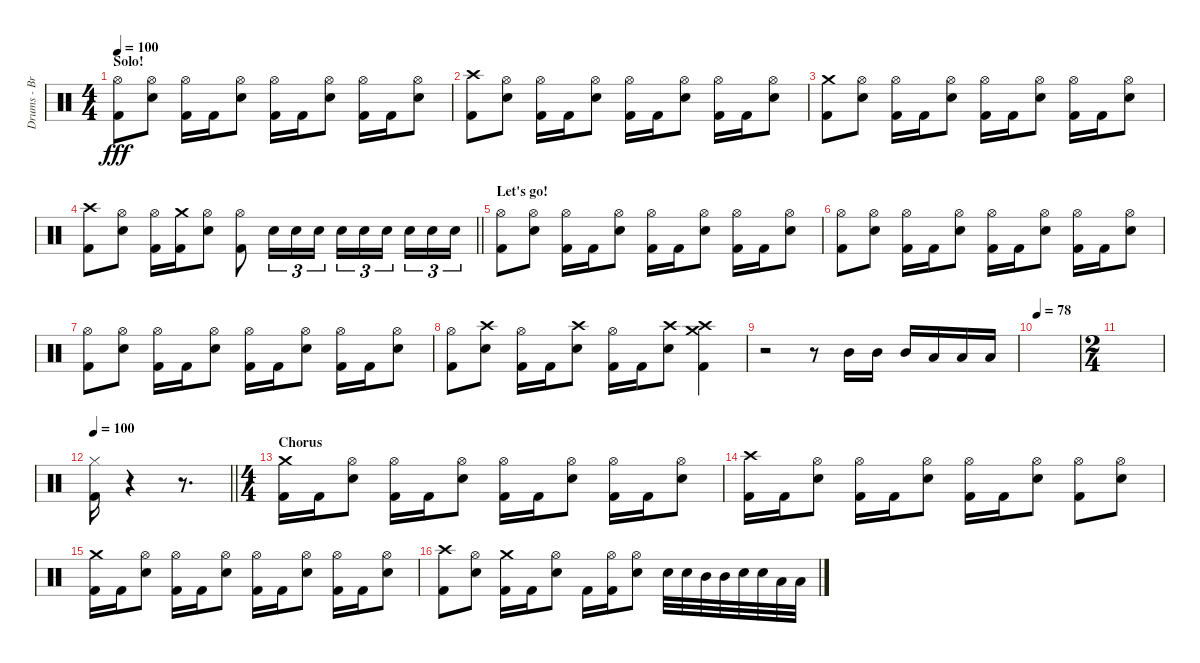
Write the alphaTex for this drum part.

\track ("Drums - Brandon" "Drums - Br") {instrument percussion}
\staff {score}
\articulation defaults
\ts (4 4)
\section ("" "Solo!")
\tempo 100
\clef neutral
\ks c
("Hi-Hat (open)" "Kick (hit) 2").8{dy fff} ("Hi-Hat (open)" "Snare (hit) 2").8 ("Hi-Hat (open)" "Kick (hit) 2").16 "Kick (hit) 2".16 ("Hi-Hat (open)" "Snare (hit) 2").8 ("Hi-Hat (open)" "Kick (hit) 2").16 "Kick (hit) 2".16 ("Hi-Hat (open)" "Snare (hit) 2").8 ("Hi-Hat (open)" "Kick (hit) 2").16 "Kick (hit) 2".16 ("Hi-Hat (open)" "Snare (hit) 2").8 |
("Crash high (hit)" "Kick (hit) 2").8 ("Hi-Hat (open)" "Snare (hit) 2").8 ("Hi-Hat (open)" "Kick (hit) 2").16 "Kick (hit) 2".16 ("Hi-Hat (open)" "Snare (hit) 2").8 ("Hi-Hat (open)" "Kick (hit) 2").16 "Kick (hit) 2".16 ("Hi-Hat (open)" "Snare (hit) 2").8 ("Hi-Hat (open)" "Kick (hit) 2").16 "Kick (hit) 2".16 ("Hi-Hat (open)" "Snare (hit) 2").8 |
("Crash medium (hit)" "Kick (hit) 2").8 ("Hi-Hat (open)" "Snare (hit) 2").8 ("Hi-Hat (open)" "Kick (hit) 2").16 "Kick (hit) 2".16 ("Hi-Hat (open)" "Snare (hit) 2").8 ("Hi-Hat (open)" "Kick (hit) 2").16 "Kick (hit) 2".16 ("Hi-Hat (open)" "Snare (hit) 2").8 ("Hi-Hat (open)" "Kick (hit) 2").16 "Kick (hit) 2".16 ("Hi-Hat (open)" "Snare (hit) 2").8 |
\barLineRight lightlight
("Crash high (hit)" "Kick (hit) 2").8 ("Hi-Hat (open)" "Snare (hit) 2").8 ("Hi-Hat (open)" "Kick (hit) 2").16 ("Crash medium (hit)" "Kick (hit) 2").16 ("Hi-Hat (open)" "Snare (hit) 2").8 ("Hi-Hat (open)" "Kick (hit) 2").8 "Snare (hit) 2".16{tu (3 2)} "Snare (hit) 2".16{tu (3 2)} "Snare (hit) 2".16{tu (3 2)} "Snare (hit) 2".16{tu (3 2)} "Snare (hit) 2".16{tu (3 2)} "Snare (hit) 2".16{tu (3 2) beam splitsecondary} "Snare (hit) 2".16{tu (3 2)} "Snare (hit) 2".16{tu (3 2)} "Snare (hit) 2".16{tu (3 2)} |
\section ("" "Let's go!")
("Hi-Hat (open)" "Kick (hit) 2").8 ("Hi-Hat (open)" "Snare (hit) 2").8 ("Hi-Hat (open)" "Kick (hit) 2").16 "Kick (hit) 2".16 ("Hi-Hat (open)" "Snare (hit) 2").8 ("Hi-Hat (open)" "Kick (hit) 2").16 "Kick (hit) 2".16 ("Hi-Hat (open)" "Snare (hit) 2").8 ("Hi-Hat (open)" "Kick (hit) 2").16 "Kick (hit) 2".16 ("Hi-Hat (open)" "Snare (hit) 2").8 |
("Hi-Hat (open)" "Kick (hit) 2").8 ("Hi-Hat (open)" "Snare (hit) 2").8 ("Hi-Hat (open)" "Kick (hit) 2").16 "Kick (hit) 2".16 ("Hi-Hat (open)" "Snare (hit) 2").8 ("Hi-Hat (open)" "Kick (hit) 2").16 "Kick (hit) 2".16 ("Hi-Hat (open)" "Snare (hit) 2").8 ("Hi-Hat (open)" "Kick (hit) 2").16 "Kick (hit) 2".16 ("Hi-Hat (open)" "Snare (hit) 2").8 |
("Hi-Hat (open)" "Kick (hit) 2").8 ("Hi-Hat (open)" "Snare (hit) 2").8 ("Hi-Hat (open)" "Kick (hit) 2").16 "Kick (hit) 2".16 ("Hi-Hat (open)" "Snare (hit) 2").8 ("Hi-Hat (open)" "Kick (hit) 2").16 "Kick (hit) 2".16 ("Hi-Hat (open)" "Snare (hit) 2").8 ("Hi-Hat (open)" "Kick (hit) 2").16 "Kick (hit) 2".16 ("Hi-Hat (open)" "Snare (hit) 2").8 |
("Hi-Hat (open)" "Kick (hit) 2").8 ("Crash high (hit)" "Snare (hit) 2").8 ("Hi-Hat (open)" "Kick (hit) 2").16 "Kick (hit) 2".16 ("Crash high (hit)" "Snare (hit) 2").8 ("Hi-Hat (open)" "Kick (hit) 2").16 "Kick (hit) 2".16 ("Crash high (hit)" "Snare (hit) 2").8 ("Crash high (hit)" "Crash medium (hit)" "Kick (hit) 2").4 |
r.2 r.8 "Mid Tom (hit)".16 "Mid Tom (hit)".16 "Mid Tom (hit)".16 "Low Tom (hit)".16 "Low Tom (hit)".16 "Low Tom (hit)".16 |
\tempo 78
|
\ts (2 4)
|
\tempo 100
\barLineRight lightlight
("Hi-Hat (closed)" "Kick (hit) 2").16 r.4 r.8{d} |
\ts (4 4)
\section ("" "Chorus")
("Crash medium (hit)" "Kick (hit) 2").16 "Kick (hit) 2".16 ("Hi-Hat (open)" "Snare (hit) 2").8 ("Hi-Hat (open)" "Kick (hit) 2").16 "Kick (hit) 2".16 ("Hi-Hat (open)" "Snare (hit) 2").8 ("Hi-Hat (open)" "Kick (hit) 2").16 "Kick (hit) 2".16 ("Hi-Hat (open)" "Snare (hit) 2").8 ("Hi-Hat (open)" "Kick (hit) 2").16 "Kick (hit) 2".16 ("Hi-Hat (open)" "Snare (hit) 2").8 |
("Crash high (hit)" "Kick (hit) 2").16 "Kick (hit) 2".16 ("Hi-Hat (open)" "Snare (hit) 2").8 ("Hi-Hat (open)" "Kick (hit) 2").16 "Kick (hit) 2".16 ("Hi-Hat (open)" "Snare (hit) 2").8 ("Hi-Hat (open)" "Kick (hit) 2").16 "Kick (hit) 2".16 ("Hi-Hat (open)" "Snare (hit) 2").8 ("Hi-Hat (open)" "Kick (hit) 2").8 ("Hi-Hat (open)" "Snare (hit) 2").8 |
("Crash medium (hit)" "Kick (hit) 2").16 "Kick (hit) 2".16 ("Hi-Hat (open)" "Snare (hit) 2").8 ("Hi-Hat (open)" "Kick (hit) 2").16 "Kick (hit) 2".16 ("Hi-Hat (open)" "Snare (hit) 2").8 ("Hi-Hat (open)" "Kick (hit) 2").16 "Kick (hit) 2".16 ("Hi-Hat (open)" "Snare (hit) 2").8 ("Hi-Hat (open)" "Kick (hit) 2").16 "Kick (hit) 2".16 ("Hi-Hat (open)" "Snare (hit) 2").8 |
("Crash high (hit)" "Kick (hit) 2").8 ("Hi-Hat (open)" "Snare (hit) 2").8 ("Crash medium (hit)" "Kick (hit) 2").16 "Kick (hit) 2".16 ("Hi-Hat (open)" "Snare (hit) 2").8 "Kick (hit) 2".16 ("Hi-Hat (open)" "Kick (hit) 2").16 ("Hi-Hat (open)" "Snare (hit) 2").8 "Snare (hit) 2".32 "Snare (hit) 2".32 "Mid Tom (hit)".32 "Mid Tom (hit)".32 "Snare (hit) 2".32 "Snare (hit) 2".32 "Low Tom (hit)".32 "Low Tom (hit)".32
